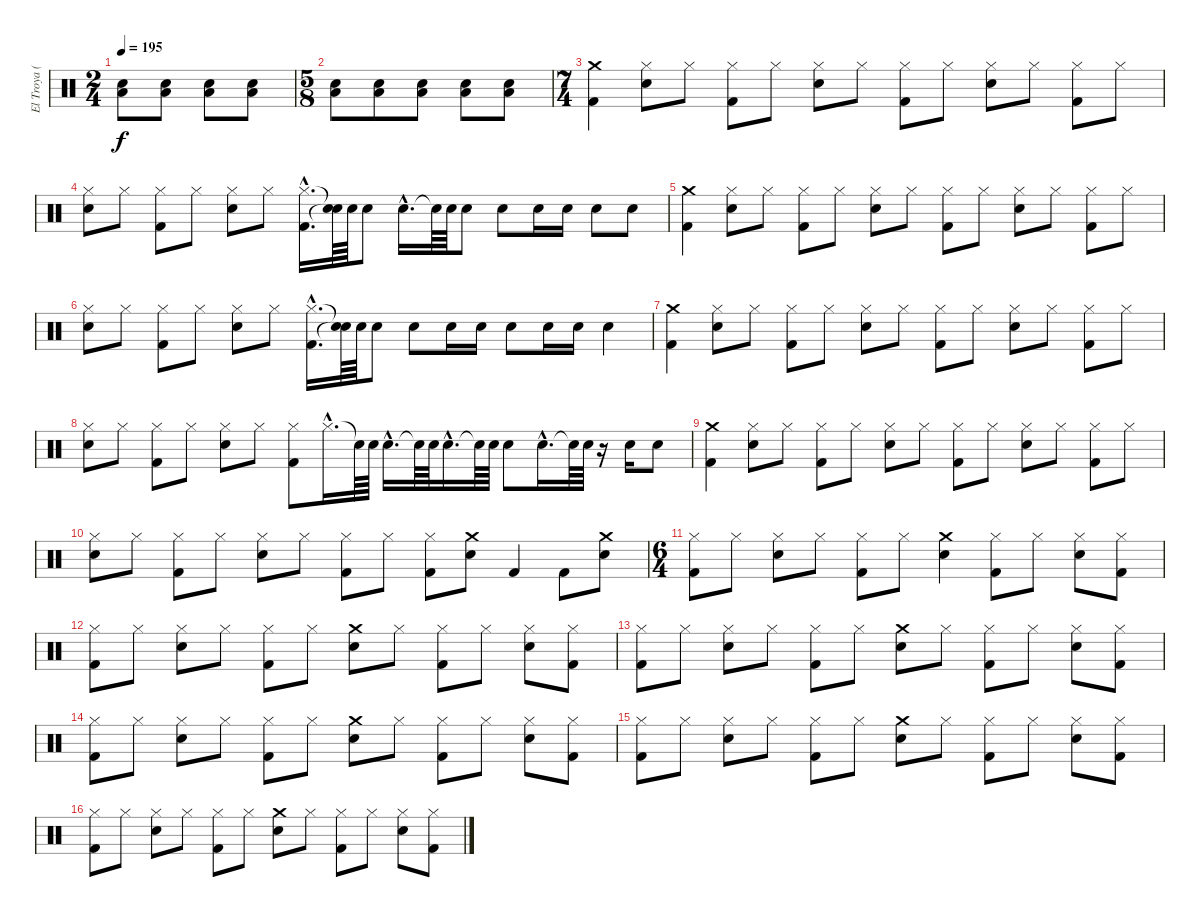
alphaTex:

\track ("El Troya (premio)" "El Troya (") {instrument percussion}
\staff {score}
\articulation defaults
\ts (2 4)
\tempo 195
\clef neutral
\ks c
("Snare (hit) 2" "Low Tom (hit)").8{dy f} ("Snare (hit) 2" "Low Tom (hit)").8 ("Snare (hit) 2" "Low Tom (hit)").8 ("Snare (hit) 2" "Low Tom (hit)").8 |
\ts (5 8)
("Snare (hit) 2" "Low Tom (hit)").8 ("Snare (hit) 2" "Low Tom (hit)").8 ("Snare (hit) 2" "Low Tom (hit)").8 ("Snare (hit) 2" "Low Tom (hit)").8 ("Snare (hit) 2" "Low Tom (hit)").8 |
\ts (7 4)
("Kick (hit) 2" "Crash medium (hit)").4 ("Hi-Hat (closed)" "Snare (hit) 2").8 "Hi-Hat (closed)".8 ("Hi-Hat (closed)" "Kick (hit) 2").8 "Hi-Hat (closed)".8 ("Snare (hit) 2" "Hi-Hat (closed)").8 "Hi-Hat (closed)".8 ("Hi-Hat (closed)" "Kick (hit) 2").8 "Hi-Hat (closed)".8 ("Snare (hit) 2" "Hi-Hat (closed)").8 "Hi-Hat (closed)".8 ("Hi-Hat (closed)" "Kick (hit) 2").8 "Hi-Hat (closed)".8 |
("Hi-Hat (closed)" "Snare (hit) 2").8 "Hi-Hat (closed)".8 ("Hi-Hat (closed)" "Kick (hit) 2").8 "Hi-Hat (closed)".8 ("Hi-Hat (closed)" "Snare (hit) 2").8 "Hi-Hat (closed)".8 ("Hi-Hat (closed)"{hac} "Kick (hit) 2"{hac}).16{d} ("Snare (hit)"{t} "Snare (hit)"{t}).64 "Snare (hit) 2".64 "Snare (hit) 2".8 "Snare (hit) 2"{hac}.16{d} "Snare (hit)"{t}.64 "Snare (hit) 2".64 "Snare (hit) 2".8 "Snare (hit) 2".8 "Snare (hit) 2".16 "Snare (hit) 2".16 "Snare (hit) 2".8 "Snare (hit) 2".8 |
("Kick (hit) 2" "Crash medium (hit)").4 ("Hi-Hat (closed)" "Snare (hit) 2").8 "Hi-Hat (closed)".8 ("Hi-Hat (closed)" "Kick (hit) 2").8 "Hi-Hat (closed)".8 ("Snare (hit) 2" "Hi-Hat (closed)").8 "Hi-Hat (closed)".8 ("Hi-Hat (closed)" "Kick (hit) 2").8 "Hi-Hat (closed)".8 ("Snare (hit) 2" "Hi-Hat (closed)").8 "Hi-Hat (closed)".8 ("Hi-Hat (closed)" "Kick (hit) 2").8 "Hi-Hat (closed)".8 |
("Hi-Hat (closed)" "Snare (hit) 2").8 "Hi-Hat (closed)".8 ("Hi-Hat (closed)" "Kick (hit) 2").8 "Hi-Hat (closed)".8 ("Hi-Hat (closed)" "Snare (hit) 2").8 "Hi-Hat (closed)".8 ("Hi-Hat (closed)"{hac} "Kick (hit) 2"{hac}).16{d} ("Snare (hit)"{t} "Snare (hit)"{t}).64 "Snare (hit) 2".64 "Snare (hit) 2".8 "Snare (hit) 2".8 "Snare (hit) 2".16 "Snare (hit) 2".16 "Snare (hit) 2".8 "Snare (hit) 2".16 "Snare (hit) 2".16 "Snare (hit) 2".4 |
("Kick (hit) 2" "Crash medium (hit)").4 ("Hi-Hat (closed)" "Snare (hit) 2").8 "Hi-Hat (closed)".8 ("Hi-Hat (closed)" "Kick (hit) 2").8 "Hi-Hat (closed)".8 ("Snare (hit) 2" "Hi-Hat (closed)").8 "Hi-Hat (closed)".8 ("Hi-Hat (closed)" "Kick (hit) 2").8 "Hi-Hat (closed)".8 ("Snare (hit) 2" "Hi-Hat (closed)").8 "Hi-Hat (closed)".8 ("Hi-Hat (closed)" "Kick (hit) 2").8 "Hi-Hat (closed)".8 |
("Hi-Hat (closed)" "Snare (hit) 2").8 "Hi-Hat (closed)".8 ("Hi-Hat (closed)" "Kick (hit) 2").8 "Hi-Hat (closed)".8 ("Hi-Hat (closed)" "Snare (hit) 2").8 "Hi-Hat (closed)".8 ("Hi-Hat (closed)" "Kick (hit) 2").8 "Hi-Hat (closed)"{hac}.16{d} "Snare (hit)"{t}.64 "Snare (hit) 2".64 "Snare (hit) 2"{hac}.16{d} "Snare (hit)"{t}.64 "Snare (hit) 2".64 "Snare (hit) 2"{hac}.16{d} "Snare (hit)"{t}.64 "Snare (hit) 2".64 "Snare (hit) 2".8 "Snare (hit) 2"{hac}.16{d} "Snare (hit)"{t}.64 "Snare (hit) 2".64 r.16 "Snare (hit) 2".16 "Snare (hit) 2".8 |
("Kick (hit) 2" "Crash medium (hit)").4 ("Hi-Hat (closed)" "Snare (hit) 2").8 "Hi-Hat (closed)".8 ("Kick (hit) 2" "Hi-Hat (closed)").8 "Hi-Hat (closed)".8 ("Snare (hit) 2" "Hi-Hat (closed)").8 "Hi-Hat (closed)".8 ("Kick (hit) 2" "Hi-Hat (closed)").8 "Hi-Hat (closed)".8 ("Snare (hit) 2" "Hi-Hat (closed)").8 "Hi-Hat (closed)".8 ("Kick (hit) 2" "Hi-Hat (closed)").8 "Hi-Hat (closed)".8 |
("Hi-Hat (closed)" "Snare (hit) 2").8 "Hi-Hat (closed)".8 ("Hi-Hat (closed)" "Kick (hit) 2").8 "Hi-Hat (closed)".8 ("Snare (hit) 2" "Hi-Hat (closed)").8 "Hi-Hat (closed)".8 ("Hi-Hat (closed)" "Kick (hit) 2").8 "Hi-Hat (closed)".8 ("Hi-Hat (closed)" "Kick (hit) 2").8 ("Crash medium (hit)" "Snare (hit) 2").8 "Kick (hit) 2".4 "Kick (hit) 2".8 ("Snare (hit) 2" "Crash medium (hit)").8 |
\ts (6 4)
("Hi-Hat (closed)" "Kick (hit) 2").8 "Hi-Hat (closed)".8 ("Snare (hit) 2" "Hi-Hat (closed)").8 "Hi-Hat (closed)".8 ("Hi-Hat (closed)" "Kick (hit) 2").8 "Hi-Hat (closed)".8 ("Snare (hit) 2" "Crash medium (hit)").4 ("Hi-Hat (closed)" "Kick (hit) 2").8 "Hi-Hat (closed)".8 ("Snare (hit) 2" "Hi-Hat (closed)").8 ("Kick (hit) 2" "Hi-Hat (closed)").8 |
("Hi-Hat (closed)" "Kick (hit) 2").8 "Hi-Hat (closed)".8 ("Snare (hit) 2" "Hi-Hat (closed)").8 "Hi-Hat (closed)".8 ("Hi-Hat (closed)" "Kick (hit) 2").8 "Hi-Hat (closed)".8 ("Crash medium (hit)" "Snare (hit) 2").8 "Hi-Hat (closed)".8 ("Hi-Hat (closed)" "Kick (hit) 2").8 "Hi-Hat (closed)".8 ("Snare (hit) 2" "Hi-Hat (closed)").8 ("Kick (hit) 2" "Hi-Hat (closed)").8 |
("Hi-Hat (closed)" "Kick (hit) 2").8 "Hi-Hat (closed)".8 ("Snare (hit) 2" "Hi-Hat (closed)").8 "Hi-Hat (closed)".8 ("Hi-Hat (closed)" "Kick (hit) 2").8 "Hi-Hat (closed)".8 ("Crash medium (hit)" "Snare (hit) 2").8 "Hi-Hat (closed)".8 ("Hi-Hat (closed)" "Kick (hit) 2").8 "Hi-Hat (closed)".8 ("Snare (hit) 2" "Hi-Hat (closed)").8 ("Kick (hit) 2" "Hi-Hat (closed)").8 |
("Hi-Hat (closed)" "Kick (hit) 2").8 "Hi-Hat (closed)".8 ("Snare (hit) 2" "Hi-Hat (closed)").8 "Hi-Hat (closed)".8 ("Hi-Hat (closed)" "Kick (hit) 2").8 "Hi-Hat (closed)".8 ("Crash medium (hit)" "Snare (hit) 2").8 "Hi-Hat (closed)".8 ("Hi-Hat (closed)" "Kick (hit) 2").8 "Hi-Hat (closed)".8 ("Snare (hit) 2" "Hi-Hat (closed)").8 ("Kick (hit) 2" "Hi-Hat (closed)").8 |
("Hi-Hat (closed)" "Kick (hit) 2").8 "Hi-Hat (closed)".8 ("Snare (hit) 2" "Hi-Hat (closed)").8 "Hi-Hat (closed)".8 ("Hi-Hat (closed)" "Kick (hit) 2").8 "Hi-Hat (closed)".8 ("Crash medium (hit)" "Snare (hit) 2").8 "Hi-Hat (closed)".8 ("Hi-Hat (closed)" "Kick (hit) 2").8 "Hi-Hat (closed)".8 ("Snare (hit) 2" "Hi-Hat (closed)").8 ("Kick (hit) 2" "Hi-Hat (closed)").8 |
("Hi-Hat (closed)" "Kick (hit) 2").8 "Hi-Hat (closed)".8 ("Snare (hit) 2" "Hi-Hat (closed)").8 "Hi-Hat (closed)".8 ("Hi-Hat (closed)" "Kick (hit) 2").8 "Hi-Hat (closed)".8 ("Crash medium (hit)" "Snare (hit) 2").8 "Hi-Hat (closed)".8 ("Hi-Hat (closed)" "Kick (hit) 2").8 "Hi-Hat (closed)".8 ("Snare (hit) 2" "Hi-Hat (closed)").8 ("Kick (hit) 2" "Hi-Hat (closed)").8
